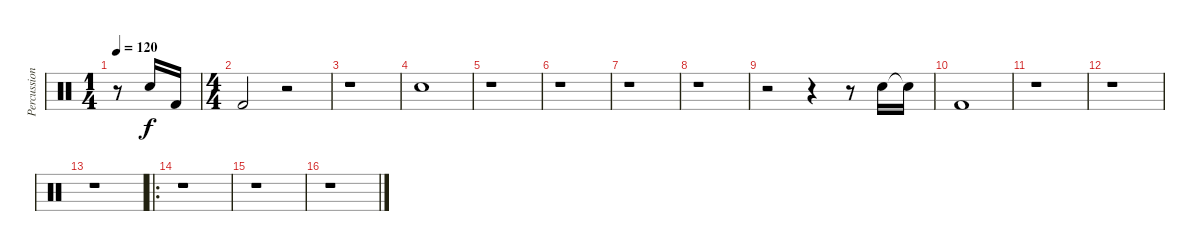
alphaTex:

\track ("Percussion" "Percussion") {instrument percussion}
\staff {score}
\articulation defaults
\ts (1 4)
\tempo 120
\clef neutral
\ks c
r.8{dy f} "Snare (hit) 2".16 "Kick (hit) 2".16 |
\ts (4 4)
"Kick (hit) 2".2 r.2 |
r.1 |
"Snare (hit) 2".1 |
r.1 |
r.1 |
r.1 |
r.1 |
r.2 r.4 r.8 "Snare (hit) 2".16 "Snare (hit) 2"{t}.16 |
"Kick (hit) 2".1 |
r.1 |
r.1 |
r.1 |
\ro
r.1 |
r.1 |
r.1
